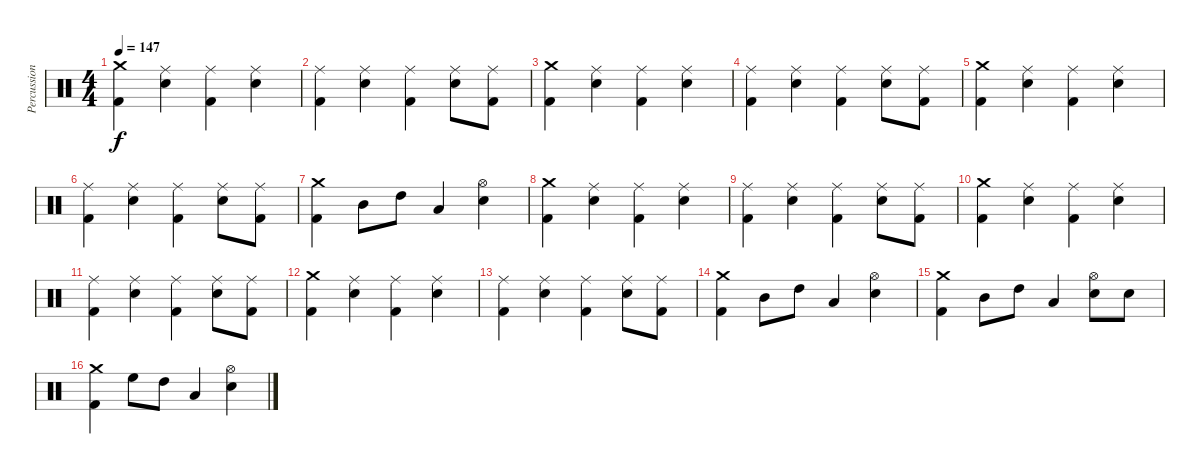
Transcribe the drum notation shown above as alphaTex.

\track ("Percussions" "Percussion") {instrument percussion}
\staff {score}
\articulation defaults
\ts (4 4)
\tempo 147
\clef neutral
\ks c
("Crash medium (hit)" "Kick (hit) 2").4{dy f} ("Ride (middle)" "Electric Snare (hit)").4 ("Ride (middle)" "Kick (hit) 2").4 ("Ride (middle)" "Electric Snare (hit)").4 |
("Ride (middle)" "Kick (hit) 2").4 ("Ride (middle)" "Electric Snare (hit)").4 ("Ride (middle)" "Kick (hit) 2").4 ("Ride (middle)" "Electric Snare (hit)").8 ("Ride (middle)" "Kick (hit) 2").8 |
("Crash medium (hit)" "Kick (hit) 2").4 ("Ride (middle)" "Electric Snare (hit)").4 ("Ride (middle)" "Kick (hit) 2").4 ("Ride (middle)" "Electric Snare (hit)").4 |
("Ride (middle)" "Kick (hit) 2").4 ("Ride (middle)" "Electric Snare (hit)").4 ("Ride (middle)" "Kick (hit) 2").4 ("Ride (middle)" "Electric Snare (hit)").8 ("Ride (middle)" "Kick (hit) 2").8 |
("Crash medium (hit)" "Kick (hit) 2").4 ("Ride (middle)" "Electric Snare (hit)").4 ("Ride (middle)" "Kick (hit) 2").4 ("Ride (middle)" "Electric Snare (hit)").4 |
("Ride (middle)" "Kick (hit) 2").4 ("Ride (middle)" "Electric Snare (hit)").4 ("Ride (middle)" "Kick (hit) 2").4 ("Ride (middle)" "Electric Snare (hit)").8 ("Ride (middle)" "Kick (hit) 2").8 |
("Crash medium (hit)" "Kick (hit) 2").4 "Mid Tom (hit)".8 "High Tom (hit)".8 "Low Tom (hit)".4 ("Hi-Hat (open)" "Electric Snare (hit)").4 |
("Crash medium (hit)" "Kick (hit) 2").4 ("Ride (middle)" "Electric Snare (hit)").4 ("Ride (middle)" "Kick (hit) 2").4 ("Ride (middle)" "Electric Snare (hit)").4 |
("Ride (middle)" "Kick (hit) 2").4 ("Ride (middle)" "Electric Snare (hit)").4 ("Ride (middle)" "Kick (hit) 2").4 ("Ride (middle)" "Electric Snare (hit)").8 ("Ride (middle)" "Kick (hit) 2").8 |
("Crash medium (hit)" "Kick (hit) 2").4 ("Ride (middle)" "Electric Snare (hit)").4 ("Ride (middle)" "Kick (hit) 2").4 ("Ride (middle)" "Electric Snare (hit)").4 |
("Ride (middle)" "Kick (hit) 2").4 ("Ride (middle)" "Electric Snare (hit)").4 ("Ride (middle)" "Kick (hit) 2").4 ("Ride (middle)" "Electric Snare (hit)").8 ("Ride (middle)" "Kick (hit) 2").8 |
("Crash medium (hit)" "Kick (hit) 2").4 ("Ride (middle)" "Electric Snare (hit)").4 ("Ride (middle)" "Kick (hit) 2").4 ("Ride (middle)" "Electric Snare (hit)").4 |
("Ride (middle)" "Kick (hit) 2").4 ("Ride (middle)" "Electric Snare (hit)").4 ("Ride (middle)" "Kick (hit) 2").4 ("Ride (middle)" "Electric Snare (hit)").8 ("Ride (middle)" "Kick (hit) 2").8 |
("Crash medium (hit)" "Kick (hit) 2").4 "Mid Tom (hit)".8 "High Tom (hit)".8 "Low Tom (hit)".4 ("Hi-Hat (open)" "Electric Snare (hit)").4 |
("Crash medium (hit)" "Kick (hit) 2").4 "Mid Tom (hit)".8 "High Tom (hit)".8 "Low Tom (hit)".4 ("Hi-Hat (open)" "Electric Snare (hit)").8 "Electric Snare (hit)".8 |
("Crash medium (hit)" "Kick (hit) 2").4 "High Floor Tom (hit)".8 "High Tom (hit)".8 "Low Tom (hit)".4 ("Hi-Hat (open)" "Electric Snare (hit)").4
